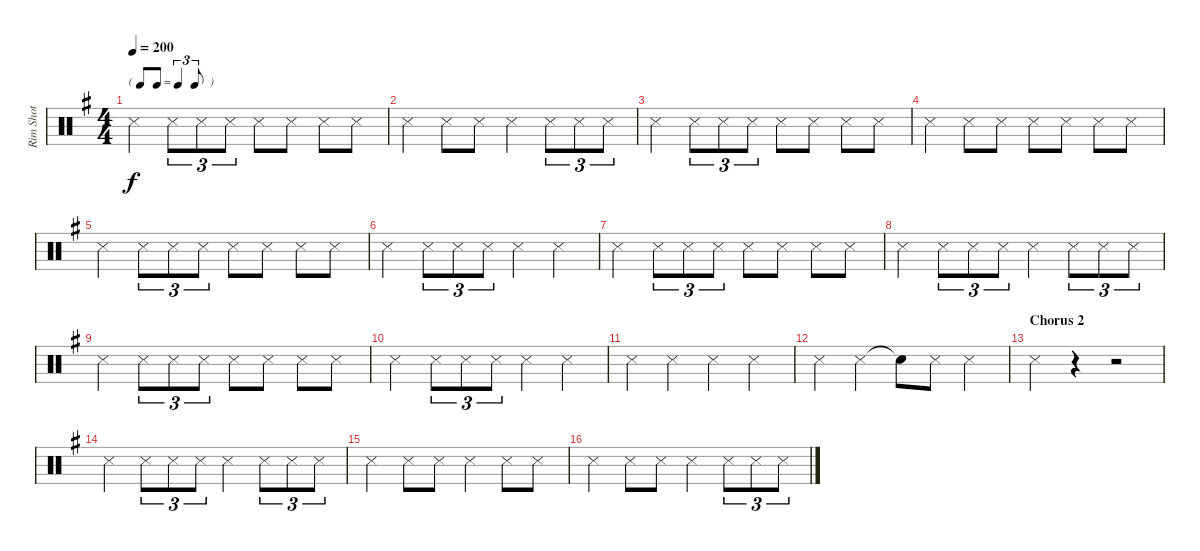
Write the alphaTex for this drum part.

\track ("Rim Shot" "Rim Shot") {instrument percussion}
\staff {score}
\articulation defaults
\ts (4 4)
\tf triplet8th
\tempo 200
\clef neutral
\ks g "Snare (side stick) 3".4{dy f} "Snare (side stick) 3".8{tu (3 2)} "Snare (side stick) 3".8{tu (3 2)} "Snare (side stick) 3".8{tu (3 2)} "Snare (side stick) 3".8 "Snare (side stick) 3".8 "Snare (side stick) 3".8 "Snare (side stick) 3".8
|
"Snare (side stick) 3".4 "Snare (side stick) 3".8 "Snare (side stick) 3".8 "Snare (side stick) 3".4 "Snare (side stick) 3".8{tu (3 2)} "Snare (side stick) 3".8{tu (3 2)} "Snare (side stick) 3".8{tu (3 2)} |
"Snare (side stick) 3".4 "Snare (side stick) 3".8{tu (3 2)} "Snare (side stick) 3".8{tu (3 2)} "Snare (side stick) 3".8{tu (3 2)} "Snare (side stick) 3".8 "Snare (side stick) 3".8 "Snare (side stick) 3".8 "Snare (side stick) 3".8 |
"Snare (side stick) 3".4 "Snare (side stick) 3".8 "Snare (side stick) 3".8 "Snare (side stick) 3".8 "Snare (side stick) 3".8 "Snare (side stick) 3".8 "Snare (side stick) 3".8 |
"Snare (side stick) 3".4 "Snare (side stick) 3".8{tu (3 2)} "Snare (side stick) 3".8{tu (3 2)} "Snare (side stick) 3".8{tu (3 2)} "Snare (side stick) 3".8 "Snare (side stick) 3".8 "Snare (side stick) 3".8 "Snare (side stick) 3".8 |
"Snare (side stick) 3".4 "Snare (side stick) 3".8{tu (3 2)} "Snare (side stick) 3".8{tu (3 2)} "Snare (side stick) 3".8{tu (3 2)} "Snare (side stick) 3".4 "Snare (side stick) 3".4 |
"Snare (side stick) 3".4 "Snare (side stick) 3".8{tu (3 2)} "Snare (side stick) 3".8{tu (3 2)} "Snare (side stick) 3".8{tu (3 2)} "Snare (side stick) 3".8 "Snare (side stick) 3".8 "Snare (side stick) 3".8 "Snare (side stick) 3".8 |
"Snare (side stick) 3".4 "Snare (side stick) 3".8{tu (3 2)} "Snare (side stick) 3".8{tu (3 2)} "Snare (side stick) 3".8{tu (3 2)} "Snare (side stick) 3".4 "Snare (side stick) 3".8{tu (3 2)} "Snare (side stick) 3".8{tu (3 2)} "Snare (side stick) 3".8{tu (3 2)} |
"Snare (side stick) 3".4 "Snare (side stick) 3".8{tu (3 2)} "Snare (side stick) 3".8{tu (3 2)} "Snare (side stick) 3".8{tu (3 2)} "Snare (side stick) 3".8 "Snare (side stick) 3".8 "Snare (side stick) 3".8 "Snare (side stick) 3".8 |
"Snare (side stick) 3".4 "Snare (side stick) 3".8{tu (3 2)} "Snare (side stick) 3".8{tu (3 2)} "Snare (side stick) 3".8{tu (3 2)} "Snare (side stick) 3".4 "Snare (side stick) 3".4 |
"Snare (side stick) 3".4 "Snare (side stick) 3".4 "Snare (side stick) 3".4 "Snare (side stick) 3".4 |
"Snare (side stick) 3".4 "Snare (side stick) 3".4 "Snare (hit)"{t}.8 "Snare (side stick) 3".8 "Snare (side stick) 3".4 |
\section ("" "Chorus 2")
"Snare (side stick) 3".4 r.4 r.2 |
"Snare (side stick) 3".4 "Snare (side stick) 3".8{tu (3 2)} "Snare (side stick) 3".8{tu (3 2)} "Snare (side stick) 3".8{tu (3 2)} "Snare (side stick) 3".4 "Snare (side stick) 3".8{tu (3 2)} "Snare (side stick) 3".8{tu (3 2)} "Snare (side stick) 3".8{tu (3 2)} |
"Snare (side stick) 3".4 "Snare (side stick) 3".8 "Snare (side stick) 3".8 "Snare (side stick) 3".4 "Snare (side stick) 3".8 "Snare (side stick) 3".8 |
"Snare (side stick) 3".4 "Snare (side stick) 3".8 "Snare (side stick) 3".8 "Snare (side stick) 3".4 "Snare (side stick) 3".8{tu (3 2)} "Snare (side stick) 3".8{tu (3 2)} "Snare (side stick) 3".8{tu (3 2)}
